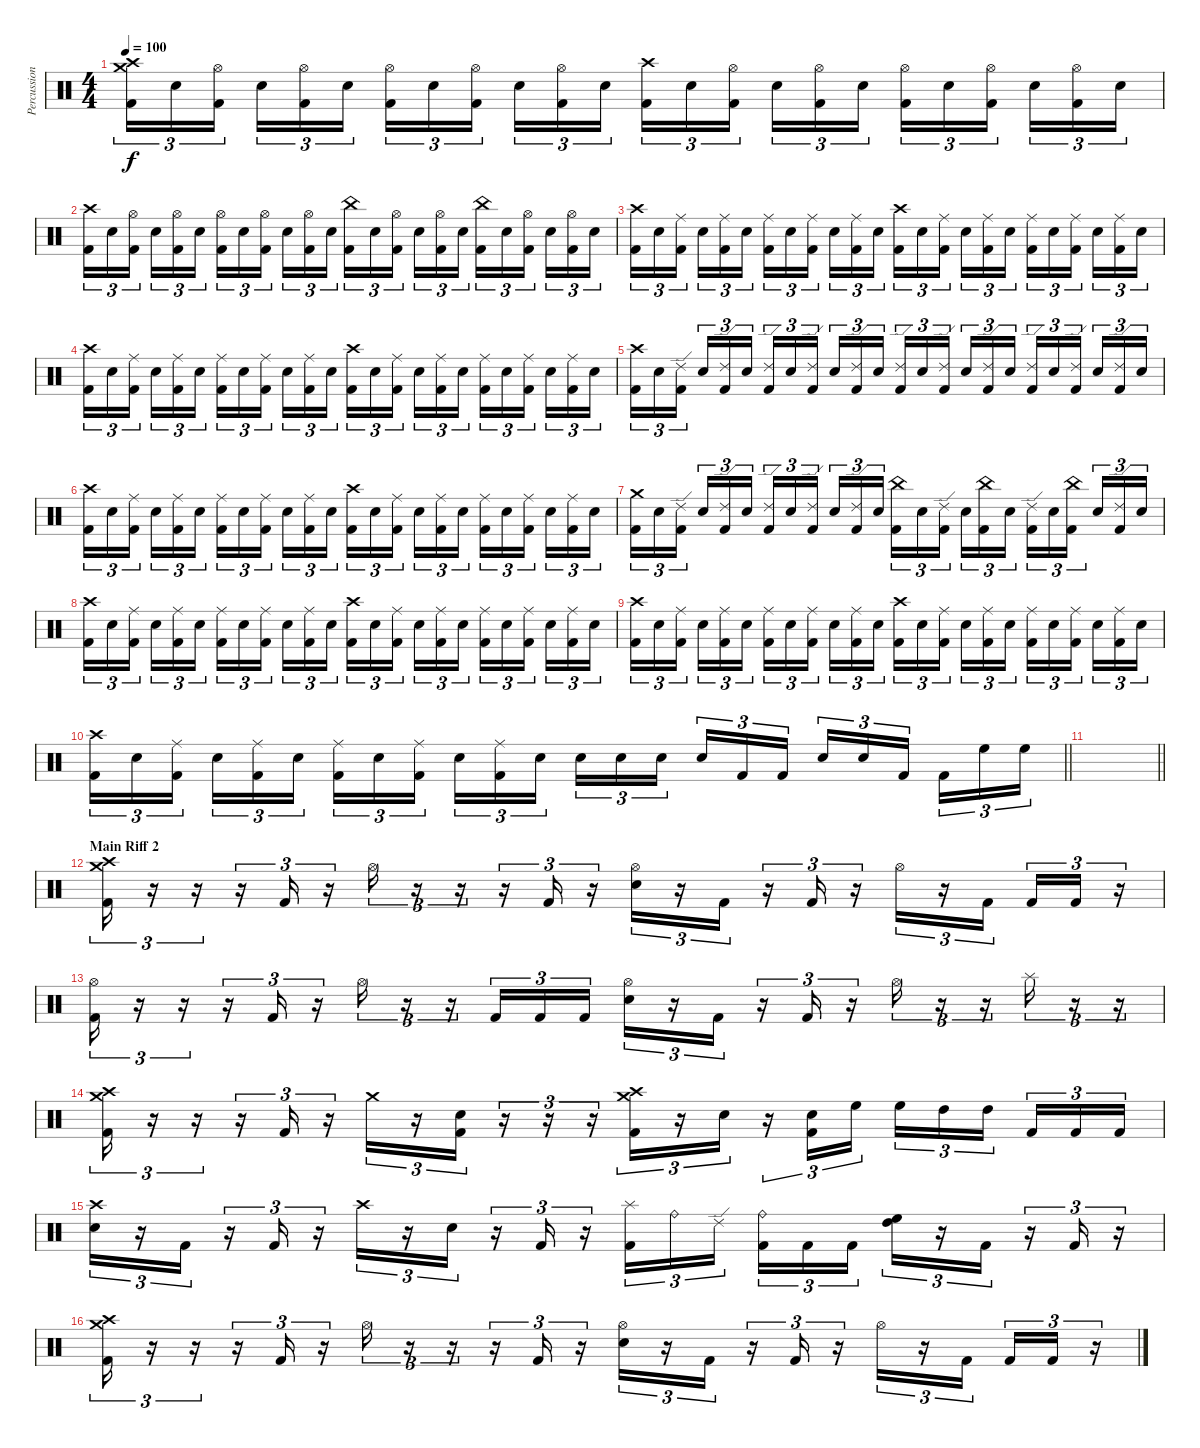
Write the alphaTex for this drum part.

\track ("Percussion" "Percussion") {instrument percussion}
\staff {score}
\articulation defaults
\ts (4 4)
\tempo 100
\clef neutral
\ks c
("Crash medium (hit)" "Crash high (hit)" "Kick (hit) 2").16{tu (3 2) dy f} "Electric Snare (hit)".16{tu (3 2)} ("Hi-Hat (open)" "Kick (hit) 2").16{tu (3 2) beam splitsecondary} "Electric Snare (hit)".16{tu (3 2)} ("Hi-Hat (open)" "Kick (hit) 2").16{tu (3 2)} "Electric Snare (hit)".16{tu (3 2)} ("Hi-Hat (open)" "Kick (hit) 2").16{tu (3 2)} "Electric Snare (hit)".16{tu (3 2)} ("Hi-Hat (open)" "Kick (hit) 2").16{tu (3 2) beam splitsecondary} "Electric Snare (hit)".16{tu (3 2)} ("Hi-Hat (open)" "Kick (hit) 2").16{tu (3 2)} "Electric Snare (hit)".16{tu (3 2)} ("Crash high (hit)" "Kick (hit) 2").16{tu (3 2)} "Electric Snare (hit)".16{tu (3 2)} ("Hi-Hat (open)" "Kick (hit) 2").16{tu (3 2) beam splitsecondary} "Electric Snare (hit)".16{tu (3 2)} ("Hi-Hat (open)" "Kick (hit) 2").16{tu (3 2)} "Electric Snare (hit)".16{tu (3 2)} ("Hi-Hat (open)" "Kick (hit) 2").16{tu (3 2)} "Electric Snare (hit)".16{tu (3 2)} ("Hi-Hat (open)" "Kick (hit) 2").16{tu (3 2) beam splitsecondary} "Electric Snare (hit)".16{tu (3 2)} ("Hi-Hat (open)" "Kick (hit) 2").16{tu (3 2)} "Electric Snare (hit)".16{tu (3 2)} |
("Crash high (hit)" "Kick (hit) 2").16{tu (3 2)} "Electric Snare (hit)".16{tu (3 2)} ("Hi-Hat (open)" "Kick (hit) 2").16{tu (3 2) beam splitsecondary} "Electric Snare (hit)".16{tu (3 2)} ("Hi-Hat (open)" "Kick (hit) 2").16{tu (3 2)} "Electric Snare (hit)".16{tu (3 2)} ("Hi-Hat (open)" "Kick (hit) 2").16{tu (3 2)} "Electric Snare (hit)".16{tu (3 2)} ("Hi-Hat (open)" "Kick (hit) 2").16{tu (3 2) beam splitsecondary} "Electric Snare (hit)".16{tu (3 2)} ("Hi-Hat (open)" "Kick (hit) 2").16{tu (3 2)} "Electric Snare (hit)".16{tu (3 2)} ("China (hit)" "Kick (hit) 2").16{tu (3 2)} "Electric Snare (hit)".16{tu (3 2)} ("Hi-Hat (open)" "Kick (hit) 2").16{tu (3 2) beam splitsecondary} "Electric Snare (hit)".16{tu (3 2)} ("Hi-Hat (open)" "Kick (hit) 2").16{tu (3 2)} "Electric Snare (hit)".16{tu (3 2)} ("China (hit)" "Kick (hit) 2").16{tu (3 2)} "Electric Snare (hit)".16{tu (3 2)} ("Hi-Hat (open)" "Kick (hit) 2").16{tu (3 2) beam splitsecondary} "Electric Snare (hit)".16{tu (3 2)} ("Hi-Hat (open)" "Kick (hit) 2").16{tu (3 2)} "Electric Snare (hit)".16{tu (3 2)} |
("Crash high (hit)" "Kick (hit) 2").16{tu (3 2)} "Electric Snare (hit)".16{tu (3 2)} ("Ride (middle)" "Kick (hit) 2").16{tu (3 2) beam splitsecondary} "Electric Snare (hit)".16{tu (3 2)} ("Ride (middle)" "Kick (hit) 2").16{tu (3 2)} "Electric Snare (hit)".16{tu (3 2)} ("Ride (middle)" "Kick (hit) 2").16{tu (3 2)} "Electric Snare (hit)".16{tu (3 2)} ("Ride (middle)" "Kick (hit) 2").16{tu (3 2) beam splitsecondary} "Electric Snare (hit)".16{tu (3 2)} ("Ride (middle)" "Kick (hit) 2").16{tu (3 2)} "Electric Snare (hit)".16{tu (3 2)} ("Crash high (hit)" "Kick (hit) 2").16{tu (3 2)} "Electric Snare (hit)".16{tu (3 2)} ("Ride (middle)" "Kick (hit) 2").16{tu (3 2) beam splitsecondary} "Electric Snare (hit)".16{tu (3 2)} ("Ride (middle)" "Kick (hit) 2").16{tu (3 2)} "Electric Snare (hit)".16{tu (3 2)} ("Ride (middle)" "Kick (hit) 2").16{tu (3 2)} "Electric Snare (hit)".16{tu (3 2)} ("Ride (middle)" "Kick (hit) 2").16{tu (3 2) beam splitsecondary} "Electric Snare (hit)".16{tu (3 2)} ("Ride (middle)" "Kick (hit) 2").16{tu (3 2)} "Electric Snare (hit)".16{tu (3 2)} |
("Crash high (hit)" "Kick (hit) 2").16{tu (3 2)} "Electric Snare (hit)".16{tu (3 2)} ("Ride (middle)" "Kick (hit) 2").16{tu (3 2) beam splitsecondary} "Electric Snare (hit)".16{tu (3 2)} ("Ride (middle)" "Kick (hit) 2").16{tu (3 2)} "Electric Snare (hit)".16{tu (3 2)} ("Ride (middle)" "Kick (hit) 2").16{tu (3 2)} "Electric Snare (hit)".16{tu (3 2)} ("Ride (middle)" "Kick (hit) 2").16{tu (3 2) beam splitsecondary} "Electric Snare (hit)".16{tu (3 2)} ("Ride (middle)" "Kick (hit) 2").16{tu (3 2)} "Electric Snare (hit)".16{tu (3 2)} ("Crash high (hit)" "Kick (hit) 2").16{tu (3 2)} "Electric Snare (hit)".16{tu (3 2)} ("Ride (middle)" "Kick (hit) 2").16{tu (3 2) beam splitsecondary} "Electric Snare (hit)".16{tu (3 2)} ("Ride (middle)" "Kick (hit) 2").16{tu (3 2)} "Electric Snare (hit)".16{tu (3 2)} ("Ride (middle)" "Kick (hit) 2").16{tu (3 2)} "Electric Snare (hit)".16{tu (3 2)} ("Ride (middle)" "Kick (hit) 2").16{tu (3 2) beam splitsecondary} "Electric Snare (hit)".16{tu (3 2)} ("Ride (middle)" "Kick (hit) 2").16{tu (3 2)} "Electric Snare (hit)".16{tu (3 2)} |
("Crash high (hit)" "Kick (hit) 2").16{tu (3 2)} "Electric Snare (hit)".16{tu (3 2)} ("Ride (edge) 2" "Kick (hit) 2").16{tu (3 2) beam splitsecondary} "Electric Snare (hit)".16{tu (3 2)} ("Ride (edge) 2" "Kick (hit) 2").16{tu (3 2)} "Electric Snare (hit)".16{tu (3 2)} ("Ride (edge) 2" "Kick (hit) 2").16{tu (3 2)} "Electric Snare (hit)".16{tu (3 2)} ("Ride (edge) 2" "Kick (hit) 2").16{tu (3 2) beam splitsecondary} "Electric Snare (hit)".16{tu (3 2)} ("Ride (edge) 2" "Kick (hit) 2").16{tu (3 2)} "Electric Snare (hit)".16{tu (3 2)} ("Ride (edge) 2" "Kick (hit) 2").16{tu (3 2)} "Electric Snare (hit)".16{tu (3 2)} ("Ride (edge) 2" "Kick (hit) 2").16{tu (3 2) beam splitsecondary} "Electric Snare (hit)".16{tu (3 2)} ("Ride (edge) 2" "Kick (hit) 2").16{tu (3 2)} "Electric Snare (hit)".16{tu (3 2)} ("Ride (edge) 2" "Kick (hit) 2").16{tu (3 2)} "Electric Snare (hit)".16{tu (3 2)} ("Ride (edge) 2" "Kick (hit) 2").16{tu (3 2) beam splitsecondary} "Electric Snare (hit)".16{tu (3 2)} ("Ride (edge) 2" "Kick (hit) 2").16{tu (3 2)} "Electric Snare (hit)".16{tu (3 2)} |
("Crash high (hit)" "Kick (hit) 2").16{tu (3 2)} "Electric Snare (hit)".16{tu (3 2)} ("Ride (middle)" "Kick (hit) 2").16{tu (3 2) beam splitsecondary} "Electric Snare (hit)".16{tu (3 2)} ("Ride (middle)" "Kick (hit) 2").16{tu (3 2)} "Electric Snare (hit)".16{tu (3 2)} ("Ride (middle)" "Kick (hit) 2").16{tu (3 2)} "Electric Snare (hit)".16{tu (3 2)} ("Ride (middle)" "Kick (hit) 2").16{tu (3 2) beam splitsecondary} "Electric Snare (hit)".16{tu (3 2)} ("Ride (middle)" "Kick (hit) 2").16{tu (3 2)} "Electric Snare (hit)".16{tu (3 2)} ("Crash high (hit)" "Kick (hit) 2").16{tu (3 2)} "Electric Snare (hit)".16{tu (3 2)} ("Ride (middle)" "Kick (hit) 2").16{tu (3 2) beam splitsecondary} "Electric Snare (hit)".16{tu (3 2)} ("Ride (middle)" "Kick (hit) 2").16{tu (3 2)} "Electric Snare (hit)".16{tu (3 2)} ("Ride (middle)" "Kick (hit) 2").16{tu (3 2)} "Electric Snare (hit)".16{tu (3 2)} ("Ride (middle)" "Kick (hit) 2").16{tu (3 2) beam splitsecondary} "Electric Snare (hit)".16{tu (3 2)} ("Ride (middle)" "Kick (hit) 2").16{tu (3 2)} "Electric Snare (hit)".16{tu (3 2)} |
("Crash medium (hit)" "Kick (hit) 2").16{tu (3 2)} "Electric Snare (hit)".16{tu (3 2)} ("Ride (edge) 2" "Kick (hit) 2").16{tu (3 2) beam splitsecondary} "Electric Snare (hit)".16{tu (3 2)} ("Ride (edge) 2" "Kick (hit) 2").16{tu (3 2)} "Electric Snare (hit)".16{tu (3 2)} ("Ride (edge) 2" "Kick (hit) 2").16{tu (3 2)} "Electric Snare (hit)".16{tu (3 2)} ("Ride (edge) 2" "Kick (hit) 2").16{tu (3 2) beam splitsecondary} "Electric Snare (hit)".16{tu (3 2)} ("Ride (edge) 2" "Kick (hit) 2").16{tu (3 2)} "Electric Snare (hit)".16{tu (3 2)} ("China (hit)" "Kick (hit) 2").16{tu (3 2)} "Electric Snare (hit)".16{tu (3 2)} ("Ride (edge) 2" "Kick (hit) 2").16{tu (3 2) beam splitsecondary} "Electric Snare (hit)".16{tu (3 2)} ("China (hit)" "Kick (hit) 2").16{tu (3 2)} "Electric Snare (hit)".16{tu (3 2)} ("Ride (edge) 2" "Kick (hit) 2").16{tu (3 2)} "Electric Snare (hit)".16{tu (3 2)} ("China (hit)" "Kick (hit) 2").16{tu (3 2) beam splitsecondary} "Electric Snare (hit)".16{tu (3 2)} ("Ride (edge) 2" "Kick (hit) 2").16{tu (3 2)} "Electric Snare (hit)".16{tu (3 2)} |
("Crash high (hit)" "Kick (hit) 2").16{tu (3 2)} "Electric Snare (hit)".16{tu (3 2)} ("Ride (middle)" "Kick (hit) 2").16{tu (3 2) beam splitsecondary} "Electric Snare (hit)".16{tu (3 2)} ("Ride (middle)" "Kick (hit) 2").16{tu (3 2)} "Electric Snare (hit)".16{tu (3 2)} ("Ride (middle)" "Kick (hit) 2").16{tu (3 2)} "Electric Snare (hit)".16{tu (3 2)} ("Ride (middle)" "Kick (hit) 2").16{tu (3 2) beam splitsecondary} "Electric Snare (hit)".16{tu (3 2)} ("Ride (middle)" "Kick (hit) 2").16{tu (3 2)} "Electric Snare (hit)".16{tu (3 2)} ("Crash high (hit)" "Kick (hit) 2").16{tu (3 2)} "Electric Snare (hit)".16{tu (3 2)} ("Ride (middle)" "Kick (hit) 2").16{tu (3 2) beam splitsecondary} "Electric Snare (hit)".16{tu (3 2)} ("Ride (middle)" "Kick (hit) 2").16{tu (3 2)} "Electric Snare (hit)".16{tu (3 2)} ("Ride (middle)" "Kick (hit) 2").16{tu (3 2)} "Electric Snare (hit)".16{tu (3 2)} ("Ride (middle)" "Kick (hit) 2").16{tu (3 2) beam splitsecondary} "Electric Snare (hit)".16{tu (3 2)} ("Ride (middle)" "Kick (hit) 2").16{tu (3 2)} "Electric Snare (hit)".16{tu (3 2)} |
("Crash high (hit)" "Kick (hit) 2").16{tu (3 2)} "Electric Snare (hit)".16{tu (3 2)} ("Ride (middle)" "Kick (hit) 2").16{tu (3 2) beam splitsecondary} "Electric Snare (hit)".16{tu (3 2)} ("Ride (middle)" "Kick (hit) 2").16{tu (3 2)} "Electric Snare (hit)".16{tu (3 2)} ("Ride (middle)" "Kick (hit) 2").16{tu (3 2)} "Electric Snare (hit)".16{tu (3 2)} ("Ride (middle)" "Kick (hit) 2").16{tu (3 2) beam splitsecondary} "Electric Snare (hit)".16{tu (3 2)} ("Ride (middle)" "Kick (hit) 2").16{tu (3 2)} "Electric Snare (hit)".16{tu (3 2)} ("Crash high (hit)" "Kick (hit) 2").16{tu (3 2)} "Electric Snare (hit)".16{tu (3 2)} ("Ride (middle)" "Kick (hit) 2").16{tu (3 2) beam splitsecondary} "Electric Snare (hit)".16{tu (3 2)} ("Ride (middle)" "Kick (hit) 2").16{tu (3 2)} "Electric Snare (hit)".16{tu (3 2)} ("Ride (middle)" "Kick (hit) 2").16{tu (3 2)} "Electric Snare (hit)".16{tu (3 2)} ("Ride (middle)" "Kick (hit) 2").16{tu (3 2) beam splitsecondary} "Electric Snare (hit)".16{tu (3 2)} ("Ride (middle)" "Kick (hit) 2").16{tu (3 2)} "Electric Snare (hit)".16{tu (3 2)} |
\barLineRight lightlight
("Crash high (hit)" "Kick (hit) 2").16{tu (3 2)} "Electric Snare (hit)".16{tu (3 2)} ("Ride (middle)" "Kick (hit) 2").16{tu (3 2) beam splitsecondary} "Electric Snare (hit)".16{tu (3 2)} ("Ride (middle)" "Kick (hit) 2").16{tu (3 2)} "Electric Snare (hit)".16{tu (3 2)} ("Ride (middle)" "Kick (hit) 2").16{tu (3 2)} "Electric Snare (hit)".16{tu (3 2)} ("Ride (middle)" "Kick (hit) 2").16{tu (3 2) beam splitsecondary} "Electric Snare (hit)".16{tu (3 2)} ("Ride (middle)" "Kick (hit) 2").16{tu (3 2)} "Electric Snare (hit)".16{tu (3 2)} "Electric Snare (hit)".16{tu (3 2)} "Electric Snare (hit)".16{tu (3 2)} "Electric Snare (hit)".16{tu (3 2) beam splitsecondary} "Electric Snare (hit)".16{tu (3 2)} "Kick (hit) 2".16{tu (3 2)} "Kick (hit) 2".16{tu (3 2)} "Electric Snare (hit)".16{tu (3 2)} "Electric Snare (hit)".16{tu (3 2)} "Kick (hit) 2".16{tu (3 2) beam splitsecondary} "Kick (hit) 2".16{tu (3 2)} "High Floor Tom (hit)".16{tu (3 2)} "High Floor Tom (hit)".16{tu (3 2)} |
\barLineRight lightlight
|
\section ("" "Main Riff 2")
("Crash high (hit)" "Crash medium (hit)" "Kick (hit) 2").16{tu (3 2)} r.16{tu (3 2)} r.16{tu (3 2)} r.16{tu (3 2)} "Kick (hit) 2".16{tu (3 2)} r.16{tu (3 2)} "Hi-Hat (open)".16{tu (3 2)} r.16{tu (3 2)} r.16{tu (3 2)} r.16{tu (3 2)} "Kick (hit) 2".16{tu (3 2)} r.16{tu (3 2)} ("Hi-Hat (open)" "Electric Snare (hit)").16{tu (3 2)} r.16{tu (3 2)} "Kick (hit) 2".16{tu (3 2)} r.16{tu (3 2)} "Kick (hit) 2".16{tu (3 2)} r.16{tu (3 2)} "Hi-Hat (open)".16{tu (3 2)} r.16{tu (3 2)} "Kick (hit) 2".16{tu (3 2) beam splitsecondary} "Kick (hit) 2".16{tu (3 2)} "Kick (hit) 2".16{tu (3 2)} r.16{tu (3 2)} |
("Hi-Hat (open)" "Kick (hit) 2").16{tu (3 2)} r.16{tu (3 2)} r.16{tu (3 2)} r.16{tu (3 2)} "Kick (hit) 2".16{tu (3 2)} r.16{tu (3 2)} "Hi-Hat (open)".16{tu (3 2)} r.16{tu (3 2)} r.16{tu (3 2)} "Kick (hit) 2".16{tu (3 2)} "Kick (hit) 2".16{tu (3 2)} "Kick (hit) 2".16{tu (3 2)} ("Hi-Hat (open)" "Electric Snare (hit)").16{tu (3 2)} r.16{tu (3 2)} "Kick (hit) 2".16{tu (3 2)} r.16{tu (3 2)} "Kick (hit) 2".16{tu (3 2)} r.16{tu (3 2)} "Hi-Hat (open)".16{tu (3 2)} r.16{tu (3 2)} r.16{tu (3 2)} "Splash (hit)".16{tu (3 2)} r.16{tu (3 2)} r.16{tu (3 2)} |
("Crash high (hit)" "Crash medium (hit)" "Kick (hit) 2").16{tu (3 2)} r.16{tu (3 2)} r.16{tu (3 2)} r.16{tu (3 2)} "Kick (hit) 2".16{tu (3 2)} r.16{tu (3 2)} "Crash medium (hit)".16{tu (3 2)} r.16{tu (3 2)} ("Electric Snare (hit)" "Kick (hit) 2").16{tu (3 2)} r.16{tu (3 2)} r.16{tu (3 2)} r.16{tu (3 2)} ("Crash high (hit)" "Crash medium (hit)" "Kick (hit) 2").16{tu (3 2)} r.16{tu (3 2)} "Electric Snare (hit)".16{tu (3 2)} r.16{tu (3 2)} ("Electric Snare (hit)" "Kick (hit) 2").16{tu (3 2)} "High Floor Tom (hit)".16{tu (3 2)} "High Floor Tom (hit)".16{tu (3 2)} "High Tom (hit)".16{tu (3 2)} "High Tom (hit)".16{tu (3 2) beam splitsecondary} "Kick (hit) 2".16{tu (3 2)} "Kick (hit) 2".16{tu (3 2)} "Kick (hit) 2".16{tu (3 2)} |
("Crash high (hit)" "Electric Snare (hit)").16{tu (3 2)} r.16{tu (3 2)} "Kick (hit) 2".16{tu (3 2)} r.16{tu (3 2)} "Kick (hit) 2".16{tu (3 2)} r.16{tu (3 2)} "Crash high (hit)".16{tu (3 2)} r.16{tu (3 2)} "Electric Snare (hit)".16{tu (3 2)} r.16{tu (3 2)} "Kick (hit) 2".16{tu (3 2)} r.16{tu (3 2)} ("Splash (hit)" "Kick (hit) 2").16{tu (3 2)} "Ride (bell)".16{tu (3 2)} "Ride (edge) 2".16{tu (3 2) beam splitsecondary} ("Ride (bell)" "Kick (hit) 2").16{tu (3 2)} "Kick (hit) 2".16{tu (3 2)} "Kick (hit) 2".16{tu (3 2)} ("High Floor Tom (hit)" "High Tom (hit)").16{tu (3 2)} r.16{tu (3 2)} "Kick (hit) 2".16{tu (3 2)} r.16{tu (3 2)} "Kick (hit) 2".16{tu (3 2)} r.16{tu (3 2)} |
("Crash high (hit)" "Crash medium (hit)" "Kick (hit) 2").16{tu (3 2)} r.16{tu (3 2)} r.16{tu (3 2)} r.16{tu (3 2)} "Kick (hit) 2".16{tu (3 2)} r.16{tu (3 2)} "Hi-Hat (open)".16{tu (3 2)} r.16{tu (3 2)} r.16{tu (3 2)} r.16{tu (3 2)} "Kick (hit) 2".16{tu (3 2)} r.16{tu (3 2)} ("Hi-Hat (open)" "Electric Snare (hit)").16{tu (3 2)} r.16{tu (3 2)} "Kick (hit) 2".16{tu (3 2)} r.16{tu (3 2)} "Kick (hit) 2".16{tu (3 2)} r.16{tu (3 2)} "Hi-Hat (open)".16{tu (3 2)} r.16{tu (3 2)} "Kick (hit) 2".16{tu (3 2) beam splitsecondary} "Kick (hit) 2".16{tu (3 2)} "Kick (hit) 2".16{tu (3 2)} r.16{tu (3 2)}
